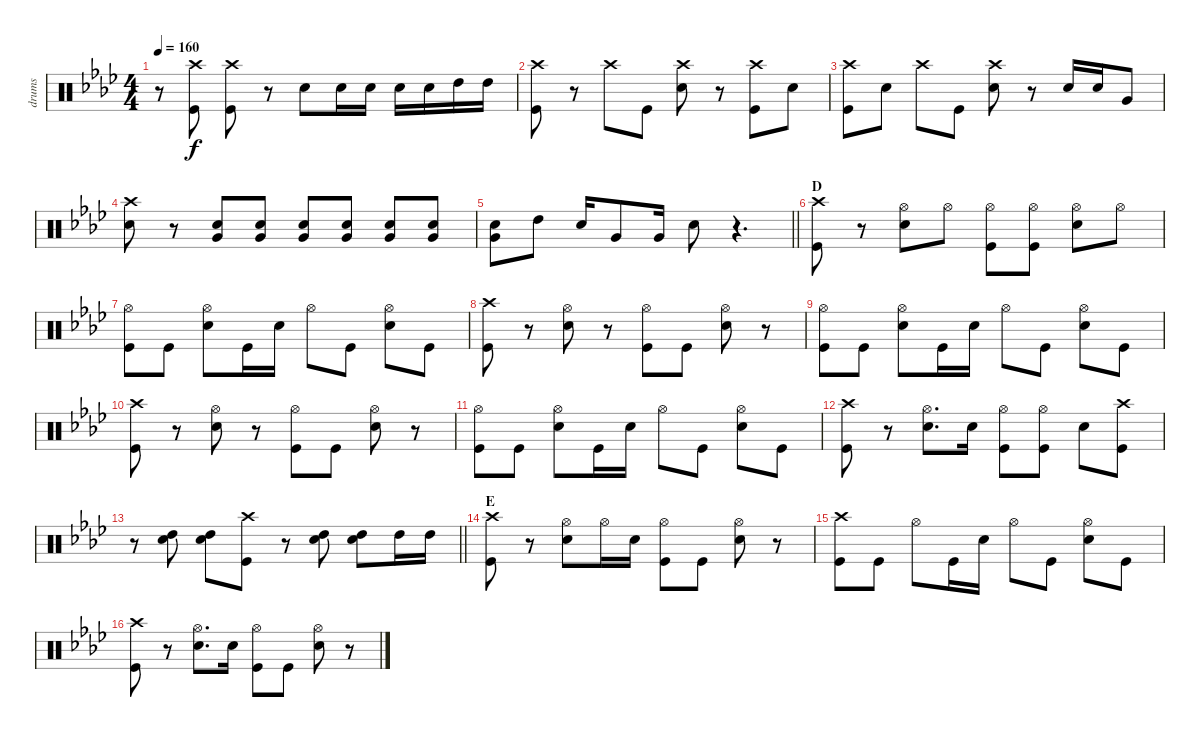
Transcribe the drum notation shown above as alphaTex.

\track ("drums" "drums") {instrument percussion}
\staff {score}
\articulation defaults
\ts (4 4)
\tempo 160
\clef neutral
\ks ab
r.8{dy f} ("Crash high (hit)" "Kick (hit)").8 ("Crash high (hit)" "Kick (hit)").8 r.8 "Snare (hit) 2".8 "Snare (hit) 2".16 "Snare (hit) 2".16 "Snare (hit) 2".16 "Snare (hit) 2".16 "High Tom (hit)".16 "High Tom (hit)".16 |
("Crash high (hit)" "Kick (hit)").8 r.8 "Crash high (hit)".8 "Kick (hit)".8 ("Crash high (hit)" "Snare (hit) 2").8 r.8 ("Crash high (hit)" "Kick (hit)").8 "Snare (hit) 2".8 |
("Crash high (hit)" "Kick (hit)").8 "Snare (hit) 2".8 "Crash high (hit)".8 "Kick (hit)".8 ("Crash high (hit)" "Snare (hit) 2").8 r.8 "Snare (hit) 2".16 "Snare (hit) 2".16 "Very Low Tom (hit)".8 |
("Crash high (hit)" "Snare (hit) 2").8 r.8 ("Snare (hit) 2" "Very Low Tom (hit)").8 ("Snare (hit) 2" "Very Low Tom (hit)").8 ("Snare (hit) 2" "Very Low Tom (hit)").8 ("Snare (hit) 2" "Very Low Tom (hit)").8 ("Snare (hit) 2" "Very Low Tom (hit)").8 ("Snare (hit) 2" "Very Low Tom (hit)").8 |
\barLineRight lightlight
("Snare (hit) 2" "Very Low Tom (hit)").8 "High Tom (hit)".8 "Snare (hit) 2".16 "Very Low Tom (hit)".8 "Very Low Tom (hit)".16 "Snare (hit) 2".8 r.4{d} |
\section ("" "D")
("Crash high (hit)" "Kick (hit)").8 r.8 ("Hi-Hat (open)" "Snare (hit) 2").8 "Hi-Hat (open)".8 ("Hi-Hat (open)" "Kick (hit)").8 ("Hi-Hat (open)" "Kick (hit)").8 ("Hi-Hat (open)" "Snare (hit) 2").8 "Hi-Hat (open)".8 |
("Hi-Hat (open)" "Kick (hit)").8 "Kick (hit)".8 ("Hi-Hat (open)" "Snare (hit) 2").8 "Kick (hit)".16 "Snare (hit) 2".16 "Hi-Hat (open)".8 "Kick (hit)".8 ("Hi-Hat (open)" "Snare (hit) 2").8 "Kick (hit)".8 |
("Crash high (hit)" "Kick (hit)").8 r.8 ("Hi-Hat (open)" "Snare (hit) 2").8 r.8 ("Hi-Hat (open)" "Kick (hit)").8 "Kick (hit)".8 ("Hi-Hat (open)" "Snare (hit) 2").8 r.8 |
("Hi-Hat (open)" "Kick (hit)").8 "Kick (hit)".8 ("Hi-Hat (open)" "Snare (hit) 2").8 "Kick (hit)".16 "Snare (hit) 2".16 "Hi-Hat (open)".8 "Kick (hit)".8 ("Hi-Hat (open)" "Snare (hit) 2").8 "Kick (hit)".8 |
("Crash high (hit)" "Kick (hit)").8 r.8 ("Hi-Hat (open)" "Snare (hit) 2").8 r.8 ("Hi-Hat (open)" "Kick (hit)").8 "Kick (hit)".8 ("Hi-Hat (open)" "Snare (hit) 2").8 r.8 |
("Hi-Hat (open)" "Kick (hit)").8 "Kick (hit)".8 ("Hi-Hat (open)" "Snare (hit) 2").8 "Kick (hit)".16 "Snare (hit) 2".16 "Hi-Hat (open)".8 "Kick (hit)".8 ("Hi-Hat (open)" "Snare (hit) 2").8 "Kick (hit)".8 |
("Crash high (hit)" "Kick (hit)").8 r.8 ("Hi-Hat (open)" "Snare (hit) 2").8{d} "Snare (hit) 2".16 ("Hi-Hat (open)" "Kick (hit)").8 ("Hi-Hat (open)" "Kick (hit)").8 "Snare (hit) 2".8 ("Crash high (hit)" "Kick (hit)").8 |
\barLineRight lightlight
r.8 ("High Tom (hit)" "Snare (hit) 2").8 ("High Tom (hit)" "Snare (hit) 2").8 ("Crash high (hit)" "Kick (hit)").8 r.8 ("High Tom (hit)" "Snare (hit) 2").8 ("High Tom (hit)" "Snare (hit) 2").8 "High Tom (hit)".16 "High Tom (hit)".16 |
\section ("" "E")
("Crash high (hit)" "Kick (hit)").8 r.8 ("Hi-Hat (open)" "Snare (hit) 2").8 "Hi-Hat (open)".16 "Snare (hit) 2".16 ("Hi-Hat (open)" "Kick (hit)").8 "Kick (hit)".8 ("Hi-Hat (open)" "Snare (hit) 2").8 r.8 |
("Crash high (hit)" "Kick (hit)").8 "Kick (hit)".8 "Hi-Hat (open)".8 "Kick (hit)".16 "Snare (hit) 2".16 "Hi-Hat (open)".8 "Kick (hit)".8 ("Hi-Hat (open)" "Snare (hit) 2").8 "Kick (hit)".8 |
("Crash high (hit)" "Kick (hit)").8 r.8 ("Hi-Hat (open)" "Snare (hit) 2").8{d} "Snare (hit) 2".16 ("Hi-Hat (open)" "Kick (hit)").8 "Kick (hit)".8 ("Hi-Hat (open)" "Snare (hit) 2").8 r.8
